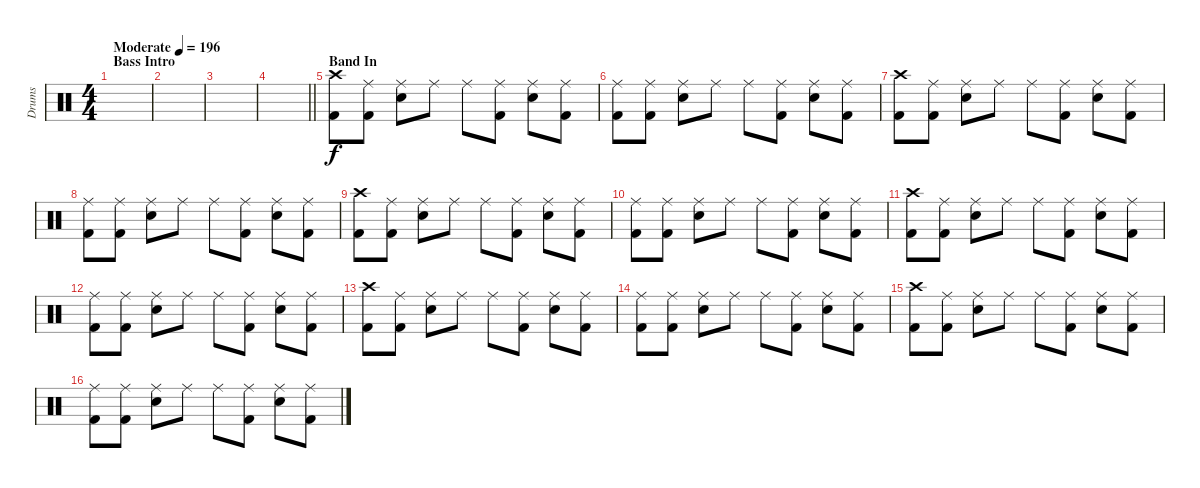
\track ("Drums" "Drums") {instrument percussion}
\staff {score}
\articulation defaults
\ts (4 4)
\section ("" "Bass Intro")
\tempo (196 "Moderate")
\clef neutral
\ks c
|
|
|
\barLineRight lightlight
|
\section ("" "Band In")
("Crash high (hit)" "Kick (hit) 2").8 ("Ride (middle)" "Kick (hit) 2").8 ("Ride (middle)" "Electric Snare (hit)").8 "Ride (middle)".8 "Ride (middle)".8 ("Ride (middle)" "Kick (hit) 2").8 ("Ride (middle)" "Electric Snare (hit)").8 ("Ride (middle)" "Kick (hit) 2").8 |
("Ride (middle)" "Kick (hit) 2").8 ("Ride (middle)" "Kick (hit) 2").8 ("Ride (middle)" "Electric Snare (hit)").8 "Ride (middle)".8 "Ride (middle)".8 ("Ride (middle)" "Kick (hit) 2").8 ("Ride (middle)" "Electric Snare (hit)").8 ("Ride (middle)" "Kick (hit) 2").8 |
("Crash high (hit)" "Kick (hit) 2").8 ("Ride (middle)" "Kick (hit) 2").8 ("Ride (middle)" "Electric Snare (hit)").8 "Ride (middle)".8 "Ride (middle)".8 ("Ride (middle)" "Kick (hit) 2").8 ("Ride (middle)" "Electric Snare (hit)").8 ("Ride (middle)" "Kick (hit) 2").8 |
("Ride (middle)" "Kick (hit) 2").8 ("Ride (middle)" "Kick (hit) 2").8 ("Ride (middle)" "Electric Snare (hit)").8 "Ride (middle)".8 "Ride (middle)".8 ("Ride (middle)" "Kick (hit) 2").8 ("Ride (middle)" "Electric Snare (hit)").8 ("Ride (middle)" "Kick (hit) 2").8 |
("Crash high (hit)" "Kick (hit) 2").8 ("Ride (middle)" "Kick (hit) 2").8 ("Ride (middle)" "Electric Snare (hit)").8 "Ride (middle)".8 "Ride (middle)".8 ("Ride (middle)" "Kick (hit) 2").8 ("Ride (middle)" "Electric Snare (hit)").8 ("Ride (middle)" "Kick (hit) 2").8 |
("Ride (middle)" "Kick (hit) 2").8 ("Ride (middle)" "Kick (hit) 2").8 ("Ride (middle)" "Electric Snare (hit)").8 "Ride (middle)".8 "Ride (middle)".8 ("Ride (middle)" "Kick (hit) 2").8 ("Ride (middle)" "Electric Snare (hit)").8 ("Ride (middle)" "Kick (hit) 2").8 |
("Crash high (hit)" "Kick (hit) 2").8 ("Ride (middle)" "Kick (hit) 2").8 ("Ride (middle)" "Electric Snare (hit)").8 "Ride (middle)".8 "Ride (middle)".8 ("Ride (middle)" "Kick (hit) 2").8 ("Ride (middle)" "Electric Snare (hit)").8 ("Ride (middle)" "Kick (hit) 2").8 |
("Ride (middle)" "Kick (hit) 2").8 ("Ride (middle)" "Kick (hit) 2").8 ("Ride (middle)" "Electric Snare (hit)").8 "Ride (middle)".8 "Ride (middle)".8 ("Ride (middle)" "Kick (hit) 2").8 ("Ride (middle)" "Electric Snare (hit)").8 ("Ride (middle)" "Kick (hit) 2").8 |
("Crash high (hit)" "Kick (hit) 2").8 ("Ride (middle)" "Kick (hit) 2").8 ("Ride (middle)" "Electric Snare (hit)").8 "Ride (middle)".8 "Ride (middle)".8 ("Ride (middle)" "Kick (hit) 2").8 ("Ride (middle)" "Electric Snare (hit)").8 ("Ride (middle)" "Kick (hit) 2").8 |
("Ride (middle)" "Kick (hit) 2").8 ("Ride (middle)" "Kick (hit) 2").8 ("Ride (middle)" "Electric Snare (hit)").8 "Ride (middle)".8 "Ride (middle)".8 ("Ride (middle)" "Kick (hit) 2").8 ("Ride (middle)" "Electric Snare (hit)").8 ("Ride (middle)" "Kick (hit) 2").8 |
("Crash high (hit)" "Kick (hit) 2").8 ("Ride (middle)" "Kick (hit) 2").8 ("Ride (middle)" "Electric Snare (hit)").8 "Ride (middle)".8 "Ride (middle)".8 ("Ride (middle)" "Kick (hit) 2").8 ("Ride (middle)" "Electric Snare (hit)").8 ("Ride (middle)" "Kick (hit) 2").8 |
("Ride (middle)" "Kick (hit) 2").8 ("Ride (middle)" "Kick (hit) 2").8 ("Ride (middle)" "Electric Snare (hit)").8 "Ride (middle)".8 "Ride (middle)".8 ("Ride (middle)" "Kick (hit) 2").8 ("Ride (middle)" "Electric Snare (hit)").8 ("Ride (middle)" "Kick (hit) 2").8
